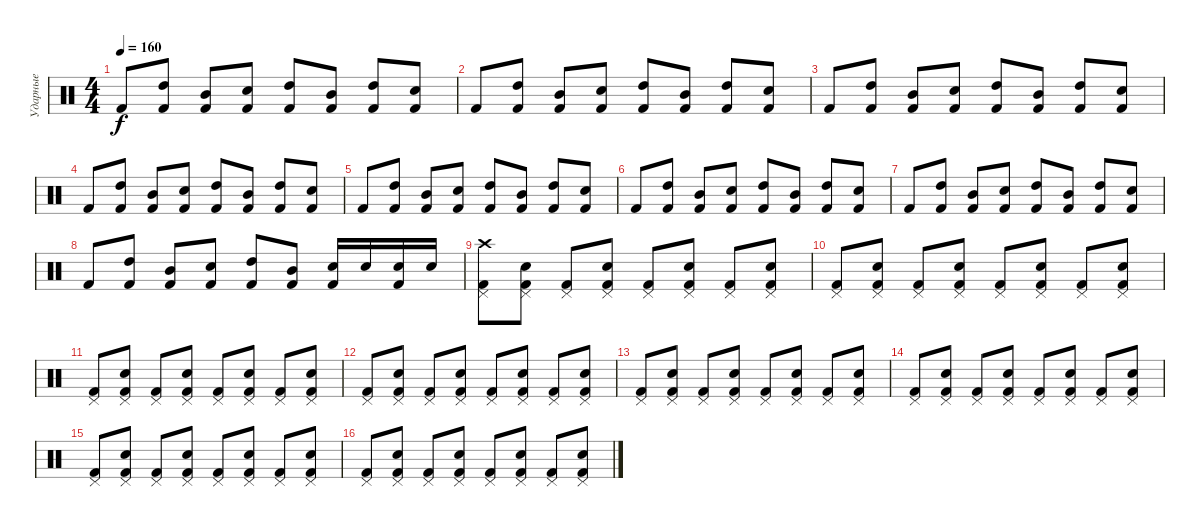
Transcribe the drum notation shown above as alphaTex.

\track ("Ударные" "Ударные") {instrument percussion}
\staff {score}
\articulation defaults
\ts (4 4)
\tempo 160
\clef neutral
\ks c "Kick (hit) 2".8{dy f}
("High Tom (hit)" "Kick (hit) 2").8 ("Mid Tom (hit)" "Kick (hit) 2").8 ("Snare (hit) 2" "Kick (hit) 2").8 ("High Tom (hit)" "Kick (hit) 2").8 ("Mid Tom (hit)" "Kick (hit) 2").8 ("High Tom (hit)" "Kick (hit) 2").8 ("Snare (hit) 2" "Kick (hit) 2").8 |
"Kick (hit) 2".8 ("High Tom (hit)" "Kick (hit) 2").8 ("Mid Tom (hit)" "Kick (hit) 2").8 ("Snare (hit) 2" "Kick (hit) 2").8 ("High Tom (hit)" "Kick (hit) 2").8 ("Mid Tom (hit)" "Kick (hit) 2").8 ("High Tom (hit)" "Kick (hit) 2").8 ("Snare (hit) 2" "Kick (hit) 2").8 |
"Kick (hit) 2".8 ("High Tom (hit)" "Kick (hit) 2").8 ("Mid Tom (hit)" "Kick (hit) 2").8 ("Snare (hit) 2" "Kick (hit) 2").8 ("High Tom (hit)" "Kick (hit) 2").8 ("Mid Tom (hit)" "Kick (hit) 2").8 ("High Tom (hit)" "Kick (hit) 2").8 ("Snare (hit) 2" "Kick (hit) 2").8 |
"Kick (hit) 2".8 ("High Tom (hit)" "Kick (hit) 2").8 ("Mid Tom (hit)" "Kick (hit) 2").8 ("Snare (hit) 2" "Kick (hit) 2").8 ("High Tom (hit)" "Kick (hit) 2").8 ("Mid Tom (hit)" "Kick (hit) 2").8 ("High Tom (hit)" "Kick (hit) 2").8 ("Snare (hit) 2" "Kick (hit) 2").8 |
"Kick (hit) 2".8 ("High Tom (hit)" "Kick (hit) 2").8 ("Mid Tom (hit)" "Kick (hit) 2").8 ("Snare (hit) 2" "Kick (hit) 2").8 ("High Tom (hit)" "Kick (hit) 2").8 ("Mid Tom (hit)" "Kick (hit) 2").8 ("High Tom (hit)" "Kick (hit) 2").8 ("Snare (hit) 2" "Kick (hit) 2").8 |
"Kick (hit) 2".8 ("High Tom (hit)" "Kick (hit) 2").8 ("Mid Tom (hit)" "Kick (hit) 2").8 ("Snare (hit) 2" "Kick (hit) 2").8 ("High Tom (hit)" "Kick (hit) 2").8 ("Mid Tom (hit)" "Kick (hit) 2").8 ("High Tom (hit)" "Kick (hit) 2").8 ("Snare (hit) 2" "Kick (hit) 2").8 |
"Kick (hit) 2".8 ("High Tom (hit)" "Kick (hit) 2").8 ("Mid Tom (hit)" "Kick (hit) 2").8 ("Snare (hit) 2" "Kick (hit) 2").8 ("High Tom (hit)" "Kick (hit) 2").8 ("Mid Tom (hit)" "Kick (hit) 2").8 ("High Tom (hit)" "Kick (hit) 2").8 ("Snare (hit) 2" "Kick (hit) 2").8 |
"Kick (hit) 2".8 ("High Tom (hit)" "Kick (hit) 2").8 ("Mid Tom (hit)" "Kick (hit) 2").8 ("Snare (hit) 2" "Kick (hit) 2").8 ("High Tom (hit)" "Kick (hit) 2").8 ("Mid Tom (hit)" "Kick (hit) 2").8 ("Snare (hit) 2" "Kick (hit) 2").16 "Snare (hit) 2".16 ("Snare (hit) 2" "Kick (hit) 2").16 "Snare (hit) 2".16 |
("Kick (hit) 2" "Pedal Hi-Hat (hit)" "Crash high (hit)").8 ("Kick (hit) 2" "Snare (hit) 2" "Pedal Hi-Hat (hit)").8 ("Kick (hit) 2" "Pedal Hi-Hat (hit)").8 ("Kick (hit) 2" "Snare (hit) 2" "Pedal Hi-Hat (hit)").8 ("Kick (hit) 2" "Pedal Hi-Hat (hit)").8 ("Kick (hit) 2" "Snare (hit) 2" "Pedal Hi-Hat (hit)").8 ("Kick (hit) 2" "Pedal Hi-Hat (hit)").8 ("Kick (hit) 2" "Snare (hit) 2" "Pedal Hi-Hat (hit)").8 |
("Kick (hit) 2" "Pedal Hi-Hat (hit)").8 ("Kick (hit) 2" "Snare (hit) 2" "Pedal Hi-Hat (hit)").8 ("Kick (hit) 2" "Pedal Hi-Hat (hit)").8 ("Kick (hit) 2" "Snare (hit) 2" "Pedal Hi-Hat (hit)").8 ("Kick (hit) 2" "Pedal Hi-Hat (hit)").8 ("Kick (hit) 2" "Snare (hit) 2" "Pedal Hi-Hat (hit)").8 ("Kick (hit) 2" "Pedal Hi-Hat (hit)").8 ("Kick (hit) 2" "Snare (hit) 2" "Pedal Hi-Hat (hit)").8 |
("Kick (hit) 2" "Pedal Hi-Hat (hit)").8 ("Kick (hit) 2" "Snare (hit) 2" "Pedal Hi-Hat (hit)").8 ("Kick (hit) 2" "Pedal Hi-Hat (hit)").8 ("Kick (hit) 2" "Snare (hit) 2" "Pedal Hi-Hat (hit)").8 ("Kick (hit) 2" "Pedal Hi-Hat (hit)").8 ("Kick (hit) 2" "Snare (hit) 2" "Pedal Hi-Hat (hit)").8 ("Kick (hit) 2" "Pedal Hi-Hat (hit)").8 ("Kick (hit) 2" "Snare (hit) 2" "Pedal Hi-Hat (hit)").8 |
("Kick (hit) 2" "Pedal Hi-Hat (hit)").8 ("Kick (hit) 2" "Snare (hit) 2" "Pedal Hi-Hat (hit)").8 ("Kick (hit) 2" "Pedal Hi-Hat (hit)").8 ("Kick (hit) 2" "Snare (hit) 2" "Pedal Hi-Hat (hit)").8 ("Kick (hit) 2" "Pedal Hi-Hat (hit)").8 ("Kick (hit) 2" "Snare (hit) 2" "Pedal Hi-Hat (hit)").8 ("Kick (hit) 2" "Pedal Hi-Hat (hit)").8 ("Kick (hit) 2" "Snare (hit) 2" "Pedal Hi-Hat (hit)").8 |
("Kick (hit) 2" "Pedal Hi-Hat (hit)").8 ("Kick (hit) 2" "Snare (hit) 2" "Pedal Hi-Hat (hit)").8 ("Kick (hit) 2" "Pedal Hi-Hat (hit)").8 ("Kick (hit) 2" "Snare (hit) 2" "Pedal Hi-Hat (hit)").8 ("Kick (hit) 2" "Pedal Hi-Hat (hit)").8 ("Kick (hit) 2" "Snare (hit) 2" "Pedal Hi-Hat (hit)").8 ("Kick (hit) 2" "Pedal Hi-Hat (hit)").8 ("Kick (hit) 2" "Snare (hit) 2" "Pedal Hi-Hat (hit)").8 |
("Kick (hit) 2" "Pedal Hi-Hat (hit)").8 ("Kick (hit) 2" "Snare (hit) 2" "Pedal Hi-Hat (hit)").8 ("Kick (hit) 2" "Pedal Hi-Hat (hit)").8 ("Kick (hit) 2" "Snare (hit) 2" "Pedal Hi-Hat (hit)").8 ("Kick (hit) 2" "Pedal Hi-Hat (hit)").8 ("Kick (hit) 2" "Snare (hit) 2" "Pedal Hi-Hat (hit)").8 ("Kick (hit) 2" "Pedal Hi-Hat (hit)").8 ("Kick (hit) 2" "Snare (hit) 2" "Pedal Hi-Hat (hit)").8 |
("Kick (hit) 2" "Pedal Hi-Hat (hit)").8 ("Kick (hit) 2" "Snare (hit) 2" "Pedal Hi-Hat (hit)").8 ("Kick (hit) 2" "Pedal Hi-Hat (hit)").8 ("Kick (hit) 2" "Snare (hit) 2" "Pedal Hi-Hat (hit)").8 ("Kick (hit) 2" "Pedal Hi-Hat (hit)").8 ("Kick (hit) 2" "Snare (hit) 2" "Pedal Hi-Hat (hit)").8 ("Kick (hit) 2" "Pedal Hi-Hat (hit)").8 ("Kick (hit) 2" "Snare (hit) 2" "Pedal Hi-Hat (hit)").8 |
("Kick (hit) 2" "Pedal Hi-Hat (hit)").8 ("Kick (hit) 2" "Snare (hit) 2" "Pedal Hi-Hat (hit)").8 ("Kick (hit) 2" "Pedal Hi-Hat (hit)").8 ("Kick (hit) 2" "Snare (hit) 2" "Pedal Hi-Hat (hit)").8 ("Kick (hit) 2" "Pedal Hi-Hat (hit)").8 ("Kick (hit) 2" "Snare (hit) 2" "Pedal Hi-Hat (hit)").8 ("Kick (hit) 2" "Pedal Hi-Hat (hit)").8 ("Kick (hit) 2" "Snare (hit) 2" "Pedal Hi-Hat (hit)").8
